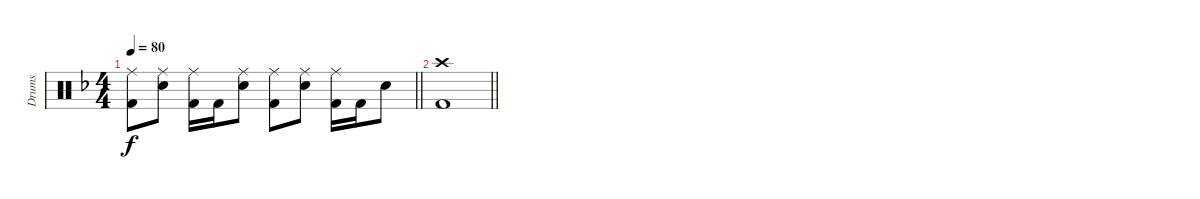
\track ("Drums" "Drums") {instrument percussion}
\staff {score}
\articulation defaults
\ts (4 4)
\tempo 80
\clef neutral
\barLineRight lightlight
\ks f
("Ride (middle)" "Kick (hit) 2").8{dy f} ("Ride (middle)" "Electric Snare (hit)").8 ("Ride (middle)" "Kick (hit) 2").16 "Kick (hit) 2".16 ("Ride (middle)" "Electric Snare (hit)").8 ("Ride (middle)" "Kick (hit) 2").8 ("Ride (middle)" "Electric Snare (hit)").8 ("Ride (middle)" "Kick (hit) 2").16 "Kick (hit) 2".16 "Electric Snare (hit)".8 |
\barLineRight lightlight
("Crash high (hit)" "Kick (hit) 2").1
